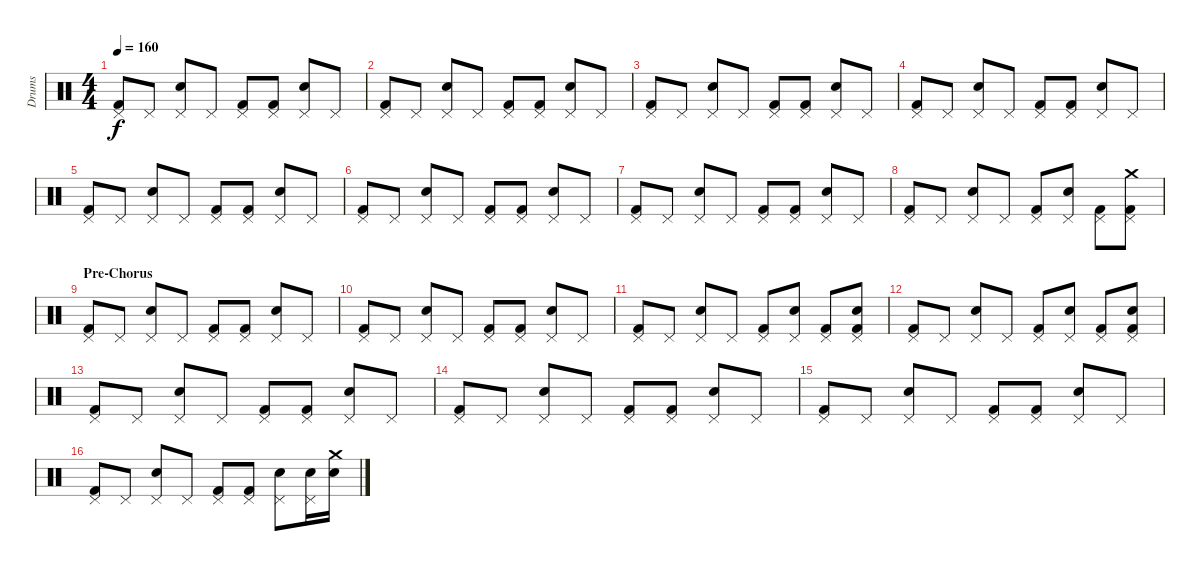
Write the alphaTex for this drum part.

\track ("Drums" "Drums") {instrument percussion}
\staff {score}
\articulation defaults
\ts (4 4)
\tempo 160
\clef neutral
\ks c
("Kick (hit) 2" "Pedal Hi-Hat (hit)").8{dy f} "Pedal Hi-Hat (hit)".8 ("Electric Snare (hit)" "Pedal Hi-Hat (hit)").8 "Pedal Hi-Hat (hit)".8 ("Kick (hit) 2" "Pedal Hi-Hat (hit)").8 ("Kick (hit) 2" "Pedal Hi-Hat (hit)").8 ("Electric Snare (hit)" "Pedal Hi-Hat (hit)").8 "Pedal Hi-Hat (hit)".8 |
("Kick (hit) 2" "Pedal Hi-Hat (hit)").8 "Pedal Hi-Hat (hit)".8 ("Electric Snare (hit)" "Pedal Hi-Hat (hit)").8 "Pedal Hi-Hat (hit)".8 ("Kick (hit) 2" "Pedal Hi-Hat (hit)").8 ("Kick (hit) 2" "Pedal Hi-Hat (hit)").8 ("Electric Snare (hit)" "Pedal Hi-Hat (hit)").8 "Pedal Hi-Hat (hit)".8 |
("Kick (hit) 2" "Pedal Hi-Hat (hit)").8 "Pedal Hi-Hat (hit)".8 ("Electric Snare (hit)" "Pedal Hi-Hat (hit)").8 "Pedal Hi-Hat (hit)".8 ("Kick (hit) 2" "Pedal Hi-Hat (hit)").8 ("Kick (hit) 2" "Pedal Hi-Hat (hit)").8 ("Electric Snare (hit)" "Pedal Hi-Hat (hit)").8 "Pedal Hi-Hat (hit)".8 |
("Kick (hit) 2" "Pedal Hi-Hat (hit)").8 "Pedal Hi-Hat (hit)".8 ("Electric Snare (hit)" "Pedal Hi-Hat (hit)").8 "Pedal Hi-Hat (hit)".8 ("Kick (hit) 2" "Pedal Hi-Hat (hit)").8 ("Kick (hit) 2" "Pedal Hi-Hat (hit)").8 ("Electric Snare (hit)" "Pedal Hi-Hat (hit)").8 "Pedal Hi-Hat (hit)".8 |
("Kick (hit) 2" "Pedal Hi-Hat (hit)").8 "Pedal Hi-Hat (hit)".8 ("Electric Snare (hit)" "Pedal Hi-Hat (hit)").8 "Pedal Hi-Hat (hit)".8 ("Kick (hit) 2" "Pedal Hi-Hat (hit)").8 ("Kick (hit) 2" "Pedal Hi-Hat (hit)").8 ("Electric Snare (hit)" "Pedal Hi-Hat (hit)").8 "Pedal Hi-Hat (hit)".8 |
("Kick (hit) 2" "Pedal Hi-Hat (hit)").8 "Pedal Hi-Hat (hit)".8 ("Electric Snare (hit)" "Pedal Hi-Hat (hit)").8 "Pedal Hi-Hat (hit)".8 ("Kick (hit) 2" "Pedal Hi-Hat (hit)").8 ("Kick (hit) 2" "Pedal Hi-Hat (hit)").8 ("Electric Snare (hit)" "Pedal Hi-Hat (hit)").8 "Pedal Hi-Hat (hit)".8 |
("Kick (hit) 2" "Pedal Hi-Hat (hit)").8 "Pedal Hi-Hat (hit)".8 ("Electric Snare (hit)" "Pedal Hi-Hat (hit)").8 "Pedal Hi-Hat (hit)".8 ("Kick (hit) 2" "Pedal Hi-Hat (hit)").8 ("Kick (hit) 2" "Pedal Hi-Hat (hit)").8 ("Electric Snare (hit)" "Pedal Hi-Hat (hit)").8 "Pedal Hi-Hat (hit)".8 |
("Kick (hit) 2" "Pedal Hi-Hat (hit)").8 "Pedal Hi-Hat (hit)".8 ("Electric Snare (hit)" "Pedal Hi-Hat (hit)").8 "Pedal Hi-Hat (hit)".8 ("Kick (hit) 2" "Pedal Hi-Hat (hit)").8 ("Pedal Hi-Hat (hit)" "Electric Snare (hit)").8 ("Kick (hit) 2" "Pedal Hi-Hat (hit)").8 ("Kick (hit) 2" "Pedal Hi-Hat (hit)" "Crash medium (hit)").8 |
\section ("" "Pre-Chorus")
("Kick (hit) 2" "Pedal Hi-Hat (hit)").8 "Pedal Hi-Hat (hit)".8 ("Electric Snare (hit)" "Pedal Hi-Hat (hit)").8 "Pedal Hi-Hat (hit)".8 ("Kick (hit) 2" "Pedal Hi-Hat (hit)").8 ("Kick (hit) 2" "Pedal Hi-Hat (hit)").8 ("Electric Snare (hit)" "Pedal Hi-Hat (hit)").8 "Pedal Hi-Hat (hit)".8 |
("Kick (hit) 2" "Pedal Hi-Hat (hit)").8 "Pedal Hi-Hat (hit)".8 ("Electric Snare (hit)" "Pedal Hi-Hat (hit)").8 "Pedal Hi-Hat (hit)".8 ("Kick (hit) 2" "Pedal Hi-Hat (hit)").8 ("Kick (hit) 2" "Pedal Hi-Hat (hit)").8 ("Electric Snare (hit)" "Pedal Hi-Hat (hit)").8 "Pedal Hi-Hat (hit)".8 |
("Kick (hit) 2" "Pedal Hi-Hat (hit)").8 "Pedal Hi-Hat (hit)".8 ("Electric Snare (hit)" "Pedal Hi-Hat (hit)").8 "Pedal Hi-Hat (hit)".8 ("Kick (hit) 2" "Pedal Hi-Hat (hit)").8 ("Pedal Hi-Hat (hit)" "Electric Snare (hit)").8 ("Kick (hit) 2" "Pedal Hi-Hat (hit)").8 ("Kick (hit) 2" "Pedal Hi-Hat (hit)" "Electric Snare (hit)").8 |
("Kick (hit) 2" "Pedal Hi-Hat (hit)").8 "Pedal Hi-Hat (hit)".8 ("Electric Snare (hit)" "Pedal Hi-Hat (hit)").8 "Pedal Hi-Hat (hit)".8 ("Kick (hit) 2" "Pedal Hi-Hat (hit)").8 ("Pedal Hi-Hat (hit)" "Electric Snare (hit)").8 ("Kick (hit) 2" "Pedal Hi-Hat (hit)").8 ("Kick (hit) 2" "Pedal Hi-Hat (hit)" "Electric Snare (hit)").8 |
("Kick (hit) 2" "Pedal Hi-Hat (hit)").8 "Pedal Hi-Hat (hit)".8 ("Electric Snare (hit)" "Pedal Hi-Hat (hit)").8 "Pedal Hi-Hat (hit)".8 ("Kick (hit) 2" "Pedal Hi-Hat (hit)").8 ("Kick (hit) 2" "Pedal Hi-Hat (hit)").8 ("Electric Snare (hit)" "Pedal Hi-Hat (hit)").8 "Pedal Hi-Hat (hit)".8 |
("Kick (hit) 2" "Pedal Hi-Hat (hit)").8 "Pedal Hi-Hat (hit)".8 ("Electric Snare (hit)" "Pedal Hi-Hat (hit)").8 "Pedal Hi-Hat (hit)".8 ("Kick (hit) 2" "Pedal Hi-Hat (hit)").8 ("Kick (hit) 2" "Pedal Hi-Hat (hit)").8 ("Electric Snare (hit)" "Pedal Hi-Hat (hit)").8 "Pedal Hi-Hat (hit)".8 |
("Kick (hit) 2" "Pedal Hi-Hat (hit)").8 "Pedal Hi-Hat (hit)".8 ("Electric Snare (hit)" "Pedal Hi-Hat (hit)").8 "Pedal Hi-Hat (hit)".8 ("Kick (hit) 2" "Pedal Hi-Hat (hit)").8 ("Kick (hit) 2" "Pedal Hi-Hat (hit)").8 ("Electric Snare (hit)" "Pedal Hi-Hat (hit)").8 "Pedal Hi-Hat (hit)".8 |
("Kick (hit) 2" "Pedal Hi-Hat (hit)").8 "Pedal Hi-Hat (hit)".8 ("Electric Snare (hit)" "Pedal Hi-Hat (hit)").8 "Pedal Hi-Hat (hit)".8 ("Kick (hit) 2" "Pedal Hi-Hat (hit)").8 ("Kick (hit) 2" "Pedal Hi-Hat (hit)").8 ("Electric Snare (hit)" "Pedal Hi-Hat (hit)").8 ("Electric Snare (hit)" "Pedal Hi-Hat (hit)").16 ("Electric Snare (hit)" "Crash medium (hit)").16
